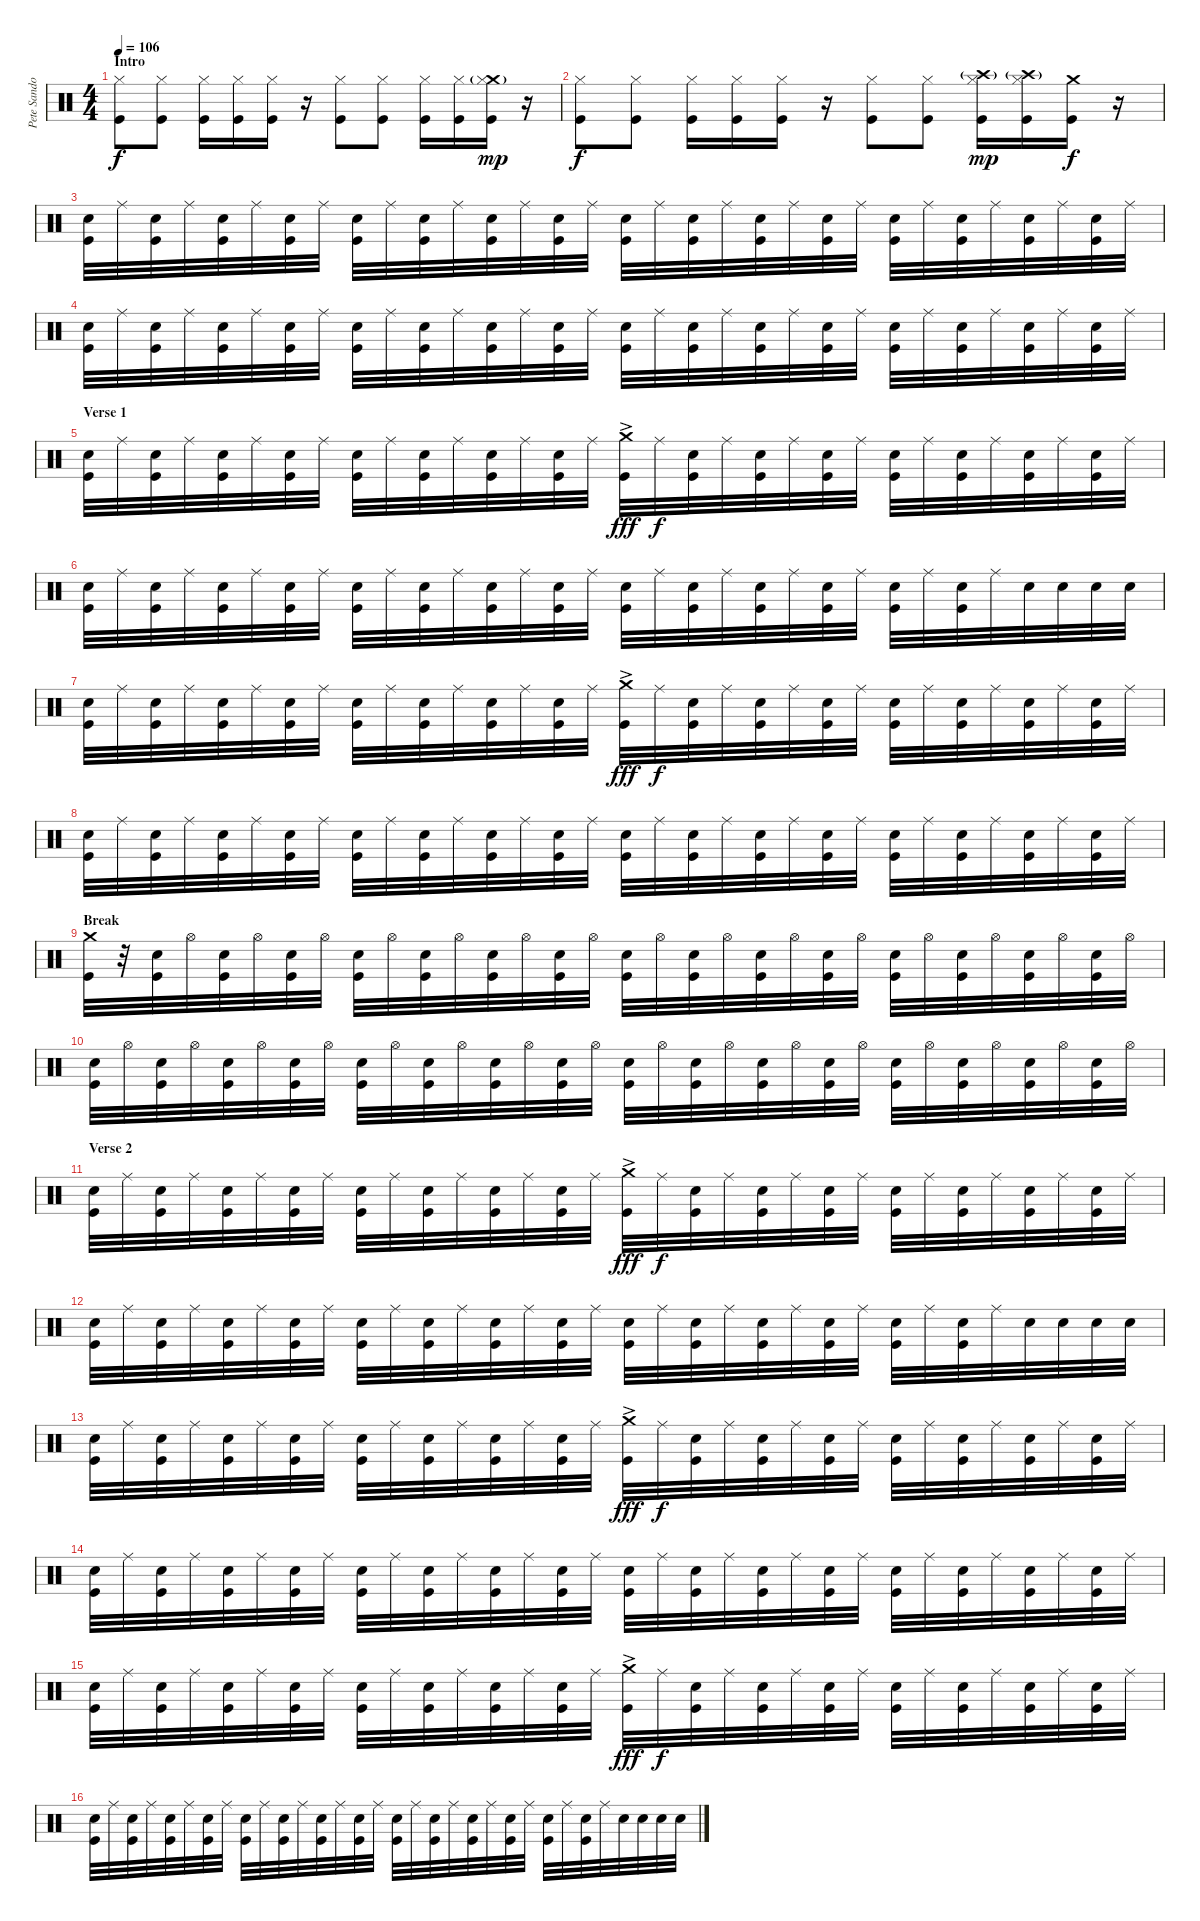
\track ("Pete Sandoval" "Pete Sando") {instrument percussion}
\staff {score}
\articulation defaults
\ts (4 4)
\section ("" "Intro")
\tempo 106
\clef neutral
\ks c
("Hi-Hat (closed)" "Kick (hit)").8{dy f} ("Hi-Hat (closed)" "Kick (hit)").8 ("Hi-Hat (closed)" "Kick (hit)").16 ("Hi-Hat (closed)" "Kick (hit)").16 ("Hi-Hat (closed)" "Kick (hit)").16 r.16 ("Hi-Hat (closed)" "Kick (hit)").8 ("Hi-Hat (closed)" "Kick (hit)").8 ("Hi-Hat (closed)" "Kick (hit)").16 ("Hi-Hat (closed)" "Kick (hit)").16 ("Crash medium (hit)"{g} "Hi-Hat (closed)" "Kick (hit)").16{dy mp} r.16 |
("Hi-Hat (closed)" "Kick (hit)").8{dy f} ("Hi-Hat (closed)" "Kick (hit)").8 ("Hi-Hat (closed)" "Kick (hit)").16 ("Hi-Hat (closed)" "Kick (hit)").16 ("Hi-Hat (closed)" "Kick (hit)").16 r.16 ("Hi-Hat (closed)" "Kick (hit)").8 ("Hi-Hat (closed)" "Kick (hit)").8 ("Crash high (hit)"{g} "Hi-Hat (closed)" "Kick (hit)").16{dy mp} ("Crash high (hit)"{g} "Hi-Hat (closed)" "Kick (hit)").16 ("Crash medium (hit)" "Kick (hit)").16{dy f} r.16 |
("Electric Snare (hit)" "Kick (hit)").32 "Ride (middle)".32 ("Electric Snare (hit)" "Kick (hit)").32 "Ride (middle)".32 ("Electric Snare (hit)" "Kick (hit)").32 "Ride (middle)".32 ("Electric Snare (hit)" "Kick (hit)").32 "Ride (middle)".32 ("Electric Snare (hit)" "Kick (hit)").32 "Ride (middle)".32 ("Electric Snare (hit)" "Kick (hit)").32 "Ride (middle)".32 ("Electric Snare (hit)" "Kick (hit)").32 "Ride (middle)".32 ("Electric Snare (hit)" "Kick (hit)").32 "Ride (middle)".32 ("Electric Snare (hit)" "Kick (hit)").32 "Ride (middle)".32 ("Electric Snare (hit)" "Kick (hit)").32 "Ride (middle)".32 ("Electric Snare (hit)" "Kick (hit)").32 "Ride (middle)".32 ("Electric Snare (hit)" "Kick (hit)").32 "Ride (middle)".32 ("Electric Snare (hit)" "Kick (hit)").32 "Ride (middle)".32 ("Electric Snare (hit)" "Kick (hit)").32 "Ride (middle)".32 ("Electric Snare (hit)" "Kick (hit)").32 "Ride (middle)".32 ("Electric Snare (hit)" "Kick (hit)").32 "Ride (middle)".32 |
("Electric Snare (hit)" "Kick (hit)").32 "Ride (middle)".32 ("Electric Snare (hit)" "Kick (hit)").32 "Ride (middle)".32 ("Electric Snare (hit)" "Kick (hit)").32 "Ride (middle)".32 ("Electric Snare (hit)" "Kick (hit)").32 "Ride (middle)".32 ("Electric Snare (hit)" "Kick (hit)").32 "Ride (middle)".32 ("Electric Snare (hit)" "Kick (hit)").32 "Ride (middle)".32 ("Electric Snare (hit)" "Kick (hit)").32 "Ride (middle)".32 ("Electric Snare (hit)" "Kick (hit)").32 "Ride (middle)".32 ("Electric Snare (hit)" "Kick (hit)").32 "Ride (middle)".32 ("Electric Snare (hit)" "Kick (hit)").32 "Ride (middle)".32 ("Electric Snare (hit)" "Kick (hit)").32 "Ride (middle)".32 ("Electric Snare (hit)" "Kick (hit)").32 "Ride (middle)".32 ("Electric Snare (hit)" "Kick (hit)").32 "Ride (middle)".32 ("Electric Snare (hit)" "Kick (hit)").32 "Ride (middle)".32 ("Electric Snare (hit)" "Kick (hit)").32 "Ride (middle)".32 ("Electric Snare (hit)" "Kick (hit)").32 "Ride (middle)".32 |
\section ("" "Verse 1")
("Electric Snare (hit)" "Kick (hit)").32 "Ride (middle)".32 ("Electric Snare (hit)" "Kick (hit)").32 "Ride (middle)".32 ("Electric Snare (hit)" "Kick (hit)").32 "Ride (middle)".32 ("Electric Snare (hit)" "Kick (hit)").32 "Ride (middle)".32 ("Electric Snare (hit)" "Kick (hit)").32 "Ride (middle)".32 ("Electric Snare (hit)" "Kick (hit)").32 "Ride (middle)".32 ("Electric Snare (hit)" "Kick (hit)").32 "Ride (middle)".32 ("Electric Snare (hit)" "Kick (hit)").32 "Ride (middle)".32 ("Crash medium (hit)"{ac} "Kick (hit)").32{dy fff} "Ride (middle)".32{dy f} ("Electric Snare (hit)" "Kick (hit)").32 "Ride (middle)".32 ("Electric Snare (hit)" "Kick (hit)").32 "Ride (middle)".32 ("Electric Snare (hit)" "Kick (hit)").32 "Ride (middle)".32 ("Electric Snare (hit)" "Kick (hit)").32 "Ride (middle)".32 ("Electric Snare (hit)" "Kick (hit)").32 "Ride (middle)".32 ("Electric Snare (hit)" "Kick (hit)").32 "Ride (middle)".32 ("Electric Snare (hit)" "Kick (hit)").32 "Ride (middle)".32 |
("Electric Snare (hit)" "Kick (hit)").32 "Ride (middle)".32 ("Electric Snare (hit)" "Kick (hit)").32 "Ride (middle)".32 ("Electric Snare (hit)" "Kick (hit)").32 "Ride (middle)".32 ("Electric Snare (hit)" "Kick (hit)").32 "Ride (middle)".32 ("Electric Snare (hit)" "Kick (hit)").32 "Ride (middle)".32 ("Electric Snare (hit)" "Kick (hit)").32 "Ride (middle)".32 ("Electric Snare (hit)" "Kick (hit)").32 "Ride (middle)".32 ("Electric Snare (hit)" "Kick (hit)").32 "Ride (middle)".32 ("Electric Snare (hit)" "Kick (hit)").32 "Ride (middle)".32 ("Electric Snare (hit)" "Kick (hit)").32 "Ride (middle)".32 ("Electric Snare (hit)" "Kick (hit)").32 "Ride (middle)".32 ("Electric Snare (hit)" "Kick (hit)").32 "Ride (middle)".32 ("Electric Snare (hit)" "Kick (hit)").32 "Ride (middle)".32 ("Electric Snare (hit)" "Kick (hit)").32 "Ride (middle)".32 "Electric Snare (hit)".32 "Electric Snare (hit)".32 "Electric Snare (hit)".32 "Electric Snare (hit)".32 |
("Electric Snare (hit)" "Kick (hit)").32 "Ride (middle)".32 ("Electric Snare (hit)" "Kick (hit)").32 "Ride (middle)".32 ("Electric Snare (hit)" "Kick (hit)").32 "Ride (middle)".32 ("Electric Snare (hit)" "Kick (hit)").32 "Ride (middle)".32 ("Electric Snare (hit)" "Kick (hit)").32 "Ride (middle)".32 ("Electric Snare (hit)" "Kick (hit)").32 "Ride (middle)".32 ("Electric Snare (hit)" "Kick (hit)").32 "Ride (middle)".32 ("Electric Snare (hit)" "Kick (hit)").32 "Ride (middle)".32 ("Crash medium (hit)"{ac} "Kick (hit)").32{dy fff} "Ride (middle)".32{dy f} ("Electric Snare (hit)" "Kick (hit)").32 "Ride (middle)".32 ("Electric Snare (hit)" "Kick (hit)").32 "Ride (middle)".32 ("Electric Snare (hit)" "Kick (hit)").32 "Ride (middle)".32 ("Electric Snare (hit)" "Kick (hit)").32 "Ride (middle)".32 ("Electric Snare (hit)" "Kick (hit)").32 "Ride (middle)".32 ("Electric Snare (hit)" "Kick (hit)").32 "Ride (middle)".32 ("Electric Snare (hit)" "Kick (hit)").32 "Ride (middle)".32 |
("Electric Snare (hit)" "Kick (hit)").32 "Ride (middle)".32 ("Electric Snare (hit)" "Kick (hit)").32 "Ride (middle)".32 ("Electric Snare (hit)" "Kick (hit)").32 "Ride (middle)".32 ("Electric Snare (hit)" "Kick (hit)").32 "Ride (middle)".32 ("Electric Snare (hit)" "Kick (hit)").32 "Ride (middle)".32 ("Electric Snare (hit)" "Kick (hit)").32 "Ride (middle)".32 ("Electric Snare (hit)" "Kick (hit)").32 "Ride (middle)".32 ("Electric Snare (hit)" "Kick (hit)").32 "Ride (middle)".32 ("Electric Snare (hit)" "Kick (hit)").32 "Ride (middle)".32 ("Electric Snare (hit)" "Kick (hit)").32 "Ride (middle)".32 ("Electric Snare (hit)" "Kick (hit)").32 "Ride (middle)".32 ("Electric Snare (hit)" "Kick (hit)").32 "Ride (middle)".32 ("Electric Snare (hit)" "Kick (hit)").32 "Ride (middle)".32 ("Electric Snare (hit)" "Kick (hit)").32 "Ride (middle)".32 ("Electric Snare (hit)" "Kick (hit)").32 "Ride (middle)".32 ("Electric Snare (hit)" "Kick (hit)").32 "Ride (middle)".32 |
\section ("" "Break")
("Crash medium (hit)" "Kick (hit)").32 r.32 ("Electric Snare (hit)" "Kick (hit)").32 "Hi-Hat (open)".32 ("Electric Snare (hit)" "Kick (hit)").32 "Hi-Hat (open)".32 ("Electric Snare (hit)" "Kick (hit)").32 "Hi-Hat (open)".32 ("Electric Snare (hit)" "Kick (hit)").32 "Hi-Hat (open)".32 ("Electric Snare (hit)" "Kick (hit)").32 "Hi-Hat (open)".32 ("Electric Snare (hit)" "Kick (hit)").32 "Hi-Hat (open)".32 ("Electric Snare (hit)" "Kick (hit)").32 "Hi-Hat (open)".32 ("Electric Snare (hit)" "Kick (hit)").32 "Hi-Hat (open)".32 ("Electric Snare (hit)" "Kick (hit)").32 "Hi-Hat (open)".32 ("Electric Snare (hit)" "Kick (hit)").32 "Hi-Hat (open)".32 ("Electric Snare (hit)" "Kick (hit)").32 "Hi-Hat (open)".32 ("Electric Snare (hit)" "Kick (hit)").32 "Hi-Hat (open)".32 ("Electric Snare (hit)" "Kick (hit)").32 "Hi-Hat (open)".32 ("Electric Snare (hit)" "Kick (hit)").32 "Hi-Hat (open)".32 ("Electric Snare (hit)" "Kick (hit)").32 "Hi-Hat (open)".32 |
("Electric Snare (hit)" "Kick (hit)").32 "Hi-Hat (open)".32 ("Electric Snare (hit)" "Kick (hit)").32 "Hi-Hat (open)".32 ("Electric Snare (hit)" "Kick (hit)").32 "Hi-Hat (open)".32 ("Electric Snare (hit)" "Kick (hit)").32 "Hi-Hat (open)".32 ("Electric Snare (hit)" "Kick (hit)").32 "Hi-Hat (open)".32 ("Electric Snare (hit)" "Kick (hit)").32 "Hi-Hat (open)".32 ("Electric Snare (hit)" "Kick (hit)").32 "Hi-Hat (open)".32 ("Electric Snare (hit)" "Kick (hit)").32 "Hi-Hat (open)".32 ("Electric Snare (hit)" "Kick (hit)").32 "Hi-Hat (open)".32 ("Electric Snare (hit)" "Kick (hit)").32 "Hi-Hat (open)".32 ("Electric Snare (hit)" "Kick (hit)").32 "Hi-Hat (open)".32 ("Electric Snare (hit)" "Kick (hit)").32 "Hi-Hat (open)".32 ("Electric Snare (hit)" "Kick (hit)").32 "Hi-Hat (open)".32 ("Electric Snare (hit)" "Kick (hit)").32 "Hi-Hat (open)".32 ("Electric Snare (hit)" "Kick (hit)").32 "Hi-Hat (open)".32 ("Electric Snare (hit)" "Kick (hit)").32 "Hi-Hat (open)".32 |
\section ("" "Verse 2")
("Electric Snare (hit)" "Kick (hit)").32 "Ride (middle)".32 ("Electric Snare (hit)" "Kick (hit)").32 "Ride (middle)".32 ("Electric Snare (hit)" "Kick (hit)").32 "Ride (middle)".32 ("Electric Snare (hit)" "Kick (hit)").32 "Ride (middle)".32 ("Electric Snare (hit)" "Kick (hit)").32 "Ride (middle)".32 ("Electric Snare (hit)" "Kick (hit)").32 "Ride (middle)".32 ("Electric Snare (hit)" "Kick (hit)").32 "Ride (middle)".32 ("Electric Snare (hit)" "Kick (hit)").32 "Ride (middle)".32 ("Crash medium (hit)"{ac} "Kick (hit)").32{dy fff} "Ride (middle)".32{dy f} ("Electric Snare (hit)" "Kick (hit)").32 "Ride (middle)".32 ("Electric Snare (hit)" "Kick (hit)").32 "Ride (middle)".32 ("Electric Snare (hit)" "Kick (hit)").32 "Ride (middle)".32 ("Electric Snare (hit)" "Kick (hit)").32 "Ride (middle)".32 ("Electric Snare (hit)" "Kick (hit)").32 "Ride (middle)".32 ("Electric Snare (hit)" "Kick (hit)").32 "Ride (middle)".32 ("Electric Snare (hit)" "Kick (hit)").32 "Ride (middle)".32 |
("Electric Snare (hit)" "Kick (hit)").32 "Ride (middle)".32 ("Electric Snare (hit)" "Kick (hit)").32 "Ride (middle)".32 ("Electric Snare (hit)" "Kick (hit)").32 "Ride (middle)".32 ("Electric Snare (hit)" "Kick (hit)").32 "Ride (middle)".32 ("Electric Snare (hit)" "Kick (hit)").32 "Ride (middle)".32 ("Electric Snare (hit)" "Kick (hit)").32 "Ride (middle)".32 ("Electric Snare (hit)" "Kick (hit)").32 "Ride (middle)".32 ("Electric Snare (hit)" "Kick (hit)").32 "Ride (middle)".32 ("Electric Snare (hit)" "Kick (hit)").32 "Ride (middle)".32 ("Electric Snare (hit)" "Kick (hit)").32 "Ride (middle)".32 ("Electric Snare (hit)" "Kick (hit)").32 "Ride (middle)".32 ("Electric Snare (hit)" "Kick (hit)").32 "Ride (middle)".32 ("Electric Snare (hit)" "Kick (hit)").32 "Ride (middle)".32 ("Electric Snare (hit)" "Kick (hit)").32 "Ride (middle)".32 "Electric Snare (hit)".32 "Electric Snare (hit)".32 "Electric Snare (hit)".32 "Electric Snare (hit)".32 |
("Electric Snare (hit)" "Kick (hit)").32 "Ride (middle)".32 ("Electric Snare (hit)" "Kick (hit)").32 "Ride (middle)".32 ("Electric Snare (hit)" "Kick (hit)").32 "Ride (middle)".32 ("Electric Snare (hit)" "Kick (hit)").32 "Ride (middle)".32 ("Electric Snare (hit)" "Kick (hit)").32 "Ride (middle)".32 ("Electric Snare (hit)" "Kick (hit)").32 "Ride (middle)".32 ("Electric Snare (hit)" "Kick (hit)").32 "Ride (middle)".32 ("Electric Snare (hit)" "Kick (hit)").32 "Ride (middle)".32 ("Crash medium (hit)"{ac} "Kick (hit)").32{dy fff} "Ride (middle)".32{dy f} ("Electric Snare (hit)" "Kick (hit)").32 "Ride (middle)".32 ("Electric Snare (hit)" "Kick (hit)").32 "Ride (middle)".32 ("Electric Snare (hit)" "Kick (hit)").32 "Ride (middle)".32 ("Electric Snare (hit)" "Kick (hit)").32 "Ride (middle)".32 ("Electric Snare (hit)" "Kick (hit)").32 "Ride (middle)".32 ("Electric Snare (hit)" "Kick (hit)").32 "Ride (middle)".32 ("Electric Snare (hit)" "Kick (hit)").32 "Ride (middle)".32 |
("Electric Snare (hit)" "Kick (hit)").32 "Ride (middle)".32 ("Electric Snare (hit)" "Kick (hit)").32 "Ride (middle)".32 ("Electric Snare (hit)" "Kick (hit)").32 "Ride (middle)".32 ("Electric Snare (hit)" "Kick (hit)").32 "Ride (middle)".32 ("Electric Snare (hit)" "Kick (hit)").32 "Ride (middle)".32 ("Electric Snare (hit)" "Kick (hit)").32 "Ride (middle)".32 ("Electric Snare (hit)" "Kick (hit)").32 "Ride (middle)".32 ("Electric Snare (hit)" "Kick (hit)").32 "Ride (middle)".32 ("Electric Snare (hit)" "Kick (hit)").32 "Ride (middle)".32 ("Electric Snare (hit)" "Kick (hit)").32 "Ride (middle)".32 ("Electric Snare (hit)" "Kick (hit)").32 "Ride (middle)".32 ("Electric Snare (hit)" "Kick (hit)").32 "Ride (middle)".32 ("Electric Snare (hit)" "Kick (hit)").32 "Ride (middle)".32 ("Electric Snare (hit)" "Kick (hit)").32 "Ride (middle)".32 ("Electric Snare (hit)" "Kick (hit)").32 "Ride (middle)".32 ("Electric Snare (hit)" "Kick (hit)").32 "Ride (middle)".32 |
("Electric Snare (hit)" "Kick (hit)").32 "Ride (middle)".32 ("Electric Snare (hit)" "Kick (hit)").32 "Ride (middle)".32 ("Electric Snare (hit)" "Kick (hit)").32 "Ride (middle)".32 ("Electric Snare (hit)" "Kick (hit)").32 "Ride (middle)".32 ("Electric Snare (hit)" "Kick (hit)").32 "Ride (middle)".32 ("Electric Snare (hit)" "Kick (hit)").32 "Ride (middle)".32 ("Electric Snare (hit)" "Kick (hit)").32 "Ride (middle)".32 ("Electric Snare (hit)" "Kick (hit)").32 "Ride (middle)".32 ("Crash medium (hit)"{ac} "Kick (hit)").32{dy fff} "Ride (middle)".32{dy f} ("Electric Snare (hit)" "Kick (hit)").32 "Ride (middle)".32 ("Electric Snare (hit)" "Kick (hit)").32 "Ride (middle)".32 ("Electric Snare (hit)" "Kick (hit)").32 "Ride (middle)".32 ("Electric Snare (hit)" "Kick (hit)").32 "Ride (middle)".32 ("Electric Snare (hit)" "Kick (hit)").32 "Ride (middle)".32 ("Electric Snare (hit)" "Kick (hit)").32 "Ride (middle)".32 ("Electric Snare (hit)" "Kick (hit)").32 "Ride (middle)".32 |
("Electric Snare (hit)" "Kick (hit)").32 "Ride (middle)".32 ("Electric Snare (hit)" "Kick (hit)").32 "Ride (middle)".32 ("Electric Snare (hit)" "Kick (hit)").32 "Ride (middle)".32 ("Electric Snare (hit)" "Kick (hit)").32 "Ride (middle)".32 ("Electric Snare (hit)" "Kick (hit)").32 "Ride (middle)".32 ("Electric Snare (hit)" "Kick (hit)").32 "Ride (middle)".32 ("Electric Snare (hit)" "Kick (hit)").32 "Ride (middle)".32 ("Electric Snare (hit)" "Kick (hit)").32 "Ride (middle)".32 ("Electric Snare (hit)" "Kick (hit)").32 "Ride (middle)".32 ("Electric Snare (hit)" "Kick (hit)").32 "Ride (middle)".32 ("Electric Snare (hit)" "Kick (hit)").32 "Ride (middle)".32 ("Electric Snare (hit)" "Kick (hit)").32 "Ride (middle)".32 ("Electric Snare (hit)" "Kick (hit)").32 "Ride (middle)".32 ("Electric Snare (hit)" "Kick (hit)").32 "Ride (middle)".32 "Electric Snare (hit)".32 "Electric Snare (hit)".32 "Electric Snare (hit)".32 "Electric Snare (hit)".32
